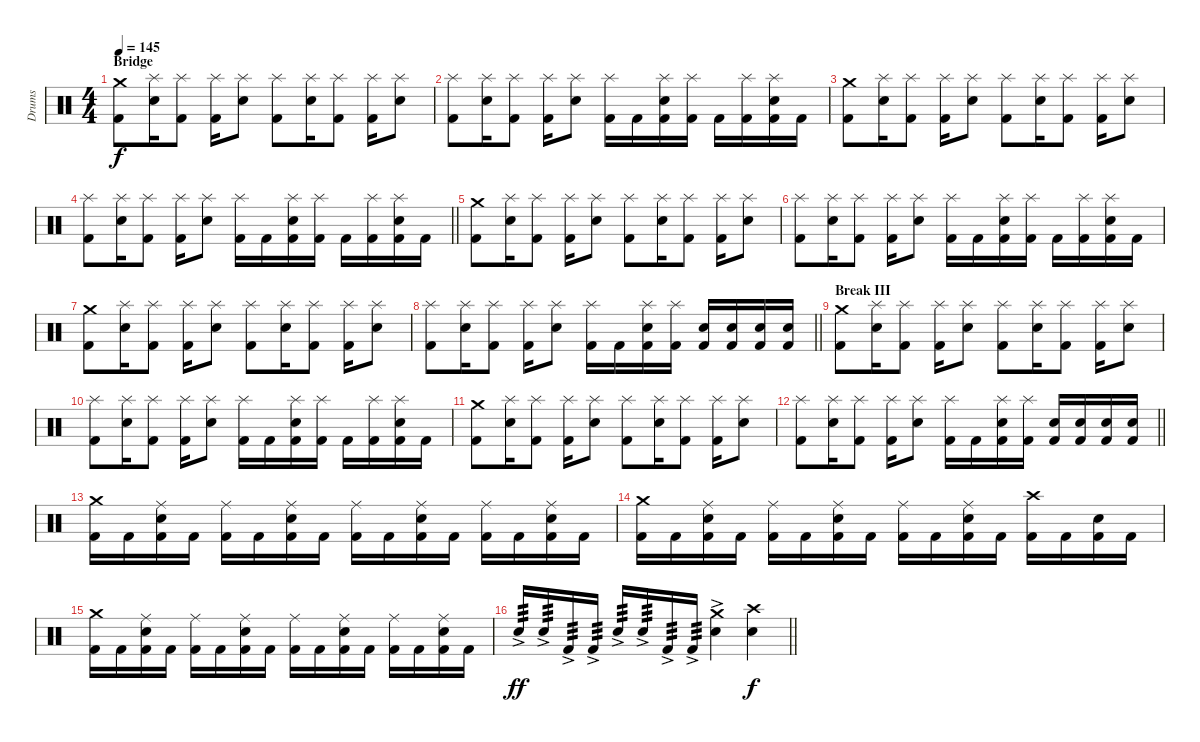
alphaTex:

\track ("Drums" "Drums") {instrument percussion}
\staff {score}
\articulation defaults
\ts (4 4)
\section ("" "Bridge")
\tempo 145
\clef neutral
\ks c
("Kick (hit) 2" "Crash medium (hit)").8{dy f} ("Snare (hit) 2" "Splash (hit)").16 ("Kick (hit) 2" "Splash (hit)").8 ("Kick (hit) 2" "Splash (hit)").16 ("Snare (hit) 2" "Splash (hit)").8 ("Kick (hit) 2" "Splash (hit)").8 ("Snare (hit) 2" "Splash (hit)").16 ("Kick (hit) 2" "Splash (hit)").8 ("Kick (hit) 2" "Splash (hit)").16 ("Snare (hit) 2" "Splash (hit)").8 |
("Kick (hit) 2" "Splash (hit)").8 ("Snare (hit) 2" "Splash (hit)").16 ("Kick (hit) 2" "Splash (hit)").8 ("Kick (hit) 2" "Splash (hit)").16 ("Snare (hit) 2" "Splash (hit)").8 ("Kick (hit) 2" "Splash (hit)").16 "Kick (hit) 2".16 ("Kick (hit) 2" "Snare (hit) 2" "Splash (hit)").16 ("Kick (hit) 2" "Splash (hit)").16 "Kick (hit) 2".16 ("Kick (hit) 2" "Splash (hit)").16 ("Kick (hit) 2" "Snare (hit) 2" "Splash (hit)").16 "Kick (hit) 2".16 |
("Kick (hit) 2" "Crash medium (hit)").8 ("Snare (hit) 2" "Splash (hit)").16 ("Kick (hit) 2" "Splash (hit)").8 ("Kick (hit) 2" "Splash (hit)").16 ("Snare (hit) 2" "Splash (hit)").8 ("Kick (hit) 2" "Splash (hit)").8 ("Snare (hit) 2" "Splash (hit)").16 ("Kick (hit) 2" "Splash (hit)").8 ("Kick (hit) 2" "Splash (hit)").16 ("Snare (hit) 2" "Splash (hit)").8 |
\barLineRight lightlight
("Kick (hit) 2" "Splash (hit)").8 ("Snare (hit) 2" "Splash (hit)").16 ("Kick (hit) 2" "Splash (hit)").8 ("Kick (hit) 2" "Splash (hit)").16 ("Snare (hit) 2" "Splash (hit)").8 ("Kick (hit) 2" "Splash (hit)").16 "Kick (hit) 2".16 ("Kick (hit) 2" "Snare (hit) 2" "Splash (hit)").16 ("Kick (hit) 2" "Splash (hit)").16 "Kick (hit) 2".16 ("Kick (hit) 2" "Splash (hit)").16 ("Kick (hit) 2" "Snare (hit) 2" "Splash (hit)").16 "Kick (hit) 2".16 |
\section ("" "")
("Kick (hit) 2" "Crash medium (hit)").8 ("Snare (hit) 2" "Splash (hit)").16 ("Kick (hit) 2" "Splash (hit)").8 ("Kick (hit) 2" "Splash (hit)").16 ("Snare (hit) 2" "Splash (hit)").8 ("Kick (hit) 2" "Splash (hit)").8 ("Snare (hit) 2" "Splash (hit)").16 ("Kick (hit) 2" "Splash (hit)").8 ("Kick (hit) 2" "Splash (hit)").16 ("Snare (hit) 2" "Splash (hit)").8 |
("Kick (hit) 2" "Splash (hit)").8 ("Snare (hit) 2" "Splash (hit)").16 ("Kick (hit) 2" "Splash (hit)").8 ("Kick (hit) 2" "Splash (hit)").16 ("Snare (hit) 2" "Splash (hit)").8 ("Kick (hit) 2" "Splash (hit)").16 "Kick (hit) 2".16 ("Kick (hit) 2" "Snare (hit) 2" "Splash (hit)").16 ("Kick (hit) 2" "Splash (hit)").16 "Kick (hit) 2".16 ("Kick (hit) 2" "Splash (hit)").16 ("Kick (hit) 2" "Snare (hit) 2" "Splash (hit)").16 "Kick (hit) 2".16 |
("Kick (hit) 2" "Crash medium (hit)").8 ("Snare (hit) 2" "Splash (hit)").16 ("Kick (hit) 2" "Splash (hit)").8 ("Kick (hit) 2" "Splash (hit)").16 ("Snare (hit) 2" "Splash (hit)").8 ("Kick (hit) 2" "Splash (hit)").8 ("Snare (hit) 2" "Splash (hit)").16 ("Kick (hit) 2" "Splash (hit)").8 ("Kick (hit) 2" "Splash (hit)").16 ("Snare (hit) 2" "Splash (hit)").8 |
\barLineRight lightlight
("Kick (hit) 2" "Splash (hit)").8 ("Snare (hit) 2" "Splash (hit)").16 ("Kick (hit) 2" "Splash (hit)").8 ("Kick (hit) 2" "Splash (hit)").16 ("Snare (hit) 2" "Splash (hit)").8 ("Kick (hit) 2" "Splash (hit)").16 "Kick (hit) 2".16 ("Kick (hit) 2" "Snare (hit) 2" "Splash (hit)").16 ("Kick (hit) 2" "Splash (hit)").16 ("Kick (hit) 2" "Snare (hit) 2").16 ("Kick (hit) 2" "Snare (hit) 2").16 ("Kick (hit) 2" "Snare (hit) 2").16 ("Kick (hit) 2" "Snare (hit) 2").16 |
\section ("" "Break III")
("Kick (hit) 2" "Crash medium (hit)").8 ("Snare (hit) 2" "Splash (hit)").16 ("Kick (hit) 2" "Splash (hit)").8 ("Kick (hit) 2" "Splash (hit)").16 ("Snare (hit) 2" "Splash (hit)").8 ("Kick (hit) 2" "Splash (hit)").8 ("Snare (hit) 2" "Splash (hit)").16 ("Kick (hit) 2" "Splash (hit)").8 ("Kick (hit) 2" "Splash (hit)").16 ("Snare (hit) 2" "Splash (hit)").8 |
("Kick (hit) 2" "Splash (hit)").8 ("Snare (hit) 2" "Splash (hit)").16 ("Kick (hit) 2" "Splash (hit)").8 ("Kick (hit) 2" "Splash (hit)").16 ("Snare (hit) 2" "Splash (hit)").8 ("Kick (hit) 2" "Splash (hit)").16 "Kick (hit) 2".16 ("Kick (hit) 2" "Snare (hit) 2" "Splash (hit)").16 ("Kick (hit) 2" "Splash (hit)").16 "Kick (hit) 2".16 ("Kick (hit) 2" "Splash (hit)").16 ("Kick (hit) 2" "Snare (hit) 2" "Splash (hit)").16 "Kick (hit) 2".16 |
("Kick (hit) 2" "Crash medium (hit)").8 ("Snare (hit) 2" "Splash (hit)").16 ("Kick (hit) 2" "Splash (hit)").8 ("Kick (hit) 2" "Splash (hit)").16 ("Snare (hit) 2" "Splash (hit)").8 ("Kick (hit) 2" "Splash (hit)").8 ("Snare (hit) 2" "Splash (hit)").16 ("Kick (hit) 2" "Splash (hit)").8 ("Kick (hit) 2" "Splash (hit)").16 ("Snare (hit) 2" "Splash (hit)").8 |
\barLineRight lightlight
("Kick (hit) 2" "Splash (hit)").8 ("Snare (hit) 2" "Splash (hit)").16 ("Kick (hit) 2" "Splash (hit)").8 ("Kick (hit) 2" "Splash (hit)").16 ("Snare (hit) 2" "Splash (hit)").8 ("Kick (hit) 2" "Splash (hit)").16 "Kick (hit) 2".16 ("Kick (hit) 2" "Snare (hit) 2" "Splash (hit)").16 ("Kick (hit) 2" "Splash (hit)").16 ("Kick (hit) 2" "Snare (hit) 2").16 ("Kick (hit) 2" "Snare (hit) 2").16 ("Kick (hit) 2" "Snare (hit) 2").16 ("Kick (hit) 2" "Snare (hit) 2").16 |
\section ("" "")
("Kick (hit) 2" "Crash medium (hit)").16 "Kick (hit) 2".16 ("Kick (hit) 2" "Snare (hit) 2" "Ride (middle)").16 "Kick (hit) 2".16 ("Kick (hit) 2" "Ride (middle)").16 "Kick (hit) 2".16 ("Kick (hit) 2" "Snare (hit) 2" "Ride (middle)").16 "Kick (hit) 2".16 ("Kick (hit) 2" "Ride (middle)").16 "Kick (hit) 2".16 ("Kick (hit) 2" "Snare (hit) 2" "Ride (middle)").16 "Kick (hit) 2".16 ("Kick (hit) 2" "Ride (middle)").16 "Kick (hit) 2".16 ("Kick (hit) 2" "Snare (hit) 2" "Ride (middle)").16 "Kick (hit) 2".16 |
("Kick (hit) 2" "Crash medium (hit)").16 "Kick (hit) 2".16 ("Kick (hit) 2" "Snare (hit) 2" "Ride (middle)").16 "Kick (hit) 2".16 ("Kick (hit) 2" "Ride (middle)").16 "Kick (hit) 2".16 ("Kick (hit) 2" "Snare (hit) 2" "Ride (middle)").16 "Kick (hit) 2".16 ("Kick (hit) 2" "Ride (middle)").16 "Kick (hit) 2".16 ("Kick (hit) 2" "Snare (hit) 2" "Ride (middle)").16 "Kick (hit) 2".16 ("Kick (hit) 2" "Crash high (hit)").16 "Kick (hit) 2".16 ("Kick (hit) 2" "Snare (hit) 2").16 "Kick (hit) 2".16 |
("Kick (hit) 2" "Crash medium (hit)").16 "Kick (hit) 2".16 ("Kick (hit) 2" "Snare (hit) 2" "Ride (middle)").16 "Kick (hit) 2".16 ("Kick (hit) 2" "Ride (middle)").16 "Kick (hit) 2".16 ("Kick (hit) 2" "Snare (hit) 2" "Ride (middle)").16 "Kick (hit) 2".16 ("Kick (hit) 2" "Ride (middle)").16 "Kick (hit) 2".16 ("Kick (hit) 2" "Snare (hit) 2" "Ride (middle)").16 "Kick (hit) 2".16 ("Kick (hit) 2" "Ride (middle)").16 "Kick (hit) 2".16 ("Kick (hit) 2" "Snare (hit) 2" "Ride (middle)").16 "Kick (hit) 2".16 |
\barLineRight lightlight "Snare (hit) 2"{ac}.16{tp 3 dy ff} "Snare (hit) 2"{ac}.16{tp 3} "Kick (hit) 2"{ac}.16{tp 3} "Kick (hit) 2"{ac}.16{tp 3} "Snare (hit) 2"{ac}.16{tp 3} "Snare (hit) 2"{ac}.16{tp 3} "Kick (hit) 2"{ac}.16{tp 3} "Kick (hit) 2"{ac}.16{tp 3}
("Snare (hit) 2"{ac} "Crash medium (hit)").4 ("Snare (hit) 2" "Crash high (hit)").4{dy f}
